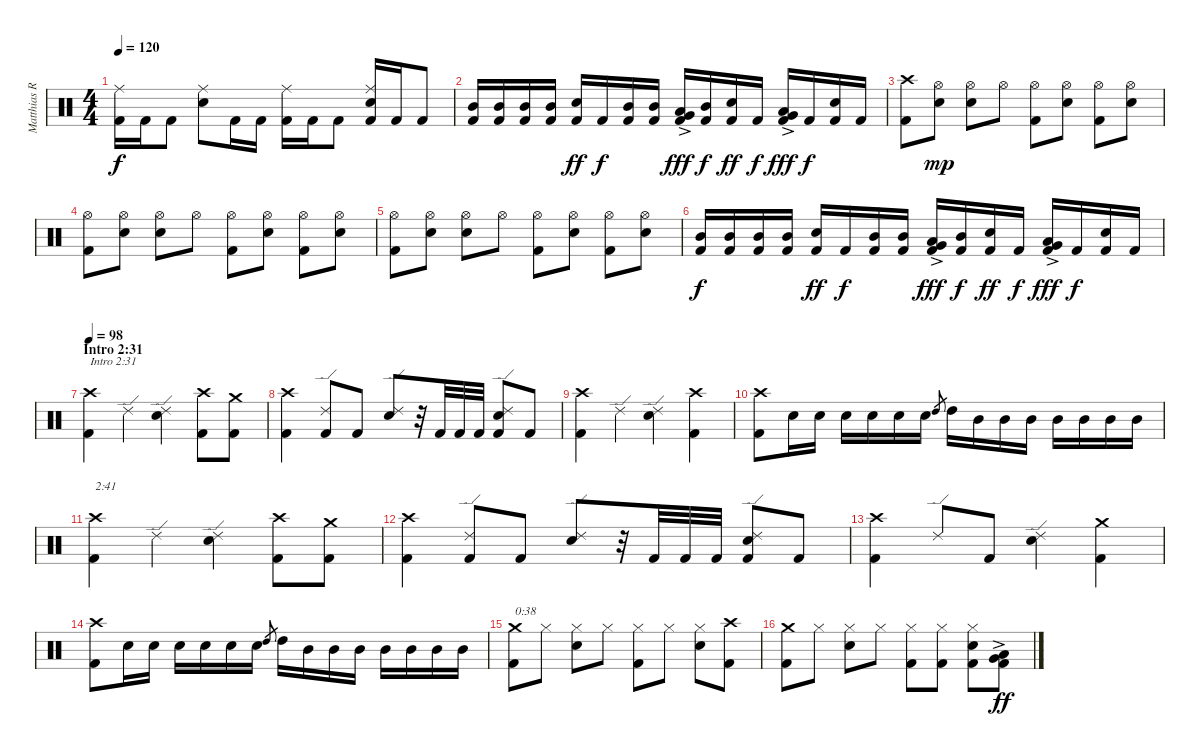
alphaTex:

\track ("Matthias R." "Matthias R") {instrument percussion}
\staff {score}
\articulation defaults
\ts (4 4)
\tempo 120
\clef neutral
\ks c
("Kick (hit) 2" "Ride (middle)").16{dy f} "Kick (hit) 2".16 "Kick (hit) 2".8 ("Electric Snare (hit)" "Ride (middle)").8 "Kick (hit) 2".16 "Kick (hit) 2".16 ("Kick (hit) 2" "Ride (middle)").16 "Kick (hit) 2".16 "Kick (hit) 2".8 ("Kick (hit) 2" "Electric Snare (hit)" "Ride (middle)").16 "Kick (hit) 2".16 "Kick (hit) 2".8 |
("Kick (hit) 2" "Mid Tom (hit)").16 ("Kick (hit) 2" "Mid Tom (hit)").16 ("Kick (hit) 2" "Mid Tom (hit)").16 ("Kick (hit) 2" "Mid Tom (hit)").16 ("Kick (hit) 2" "Electric Snare (hit)").16{dy ff} "Kick (hit) 2".16{dy f} ("Kick (hit) 2" "Mid Tom (hit)").16 ("Kick (hit) 2" "Mid Tom (hit)").16 ("Kick (hit) 2" "Very Low Tom (hit)"{ac} "Low Tom (hit)"{ac}).16{dy fff} ("Kick (hit) 2" "Mid Tom (hit)").16{dy f} ("Kick (hit) 2" "Electric Snare (hit)").16{dy ff} "Kick (hit) 2".16{dy f} ("Kick (hit) 2" "Very Low Tom (hit)"{ac} "Low Tom (hit)"{ac}).16{dy fff} "Kick (hit) 2".16{dy f} ("Kick (hit) 2" "Electric Snare (hit)").16 "Kick (hit) 2".16 |
("Kick (hit) 2" "Crash high (hit)").8 ("Electric Snare (hit)" "Hi-Hat (open)").8{dy mp} ("Electric Snare (hit)" "Hi-Hat (open)").8 "Hi-Hat (open)".8 ("Kick (hit) 2" "Hi-Hat (open)").8 ("Electric Snare (hit)" "Hi-Hat (open)").8 ("Kick (hit) 2" "Hi-Hat (open)").8 ("Electric Snare (hit)" "Hi-Hat (open)").8 |
("Kick (hit) 2" "Hi-Hat (open)").8 ("Electric Snare (hit)" "Hi-Hat (open)").8 ("Electric Snare (hit)" "Hi-Hat (open)").8 "Hi-Hat (open)".8 ("Kick (hit) 2" "Hi-Hat (open)").8 ("Electric Snare (hit)" "Hi-Hat (open)").8 ("Kick (hit) 2" "Hi-Hat (open)").8 ("Electric Snare (hit)" "Hi-Hat (open)").8 |
("Kick (hit) 2" "Hi-Hat (open)").8 ("Electric Snare (hit)" "Hi-Hat (open)").8 ("Electric Snare (hit)" "Hi-Hat (open)").8 "Hi-Hat (open)".8 ("Kick (hit) 2" "Hi-Hat (open)").8 ("Electric Snare (hit)" "Hi-Hat (open)").8 ("Kick (hit) 2" "Hi-Hat (open)").8 ("Electric Snare (hit)" "Hi-Hat (open)").8 |
("Kick (hit) 2" "Mid Tom (hit)").16{dy f} ("Kick (hit) 2" "Mid Tom (hit)").16 ("Kick (hit) 2" "Mid Tom (hit)").16 ("Kick (hit) 2" "Mid Tom (hit)").16 ("Kick (hit) 2" "Electric Snare (hit)").16{dy ff} "Kick (hit) 2".16{dy f} ("Kick (hit) 2" "Mid Tom (hit)").16 ("Kick (hit) 2" "Mid Tom (hit)").16 ("Kick (hit) 2" "Very Low Tom (hit)"{ac} "Low Tom (hit)"{ac}).16{dy fff} ("Kick (hit) 2" "Mid Tom (hit)").16{dy f} ("Kick (hit) 2" "Electric Snare (hit)").16{dy ff} "Kick (hit) 2".16{dy f} ("Kick (hit) 2" "Very Low Tom (hit)"{ac} "Low Tom (hit)"{ac}).16{dy fff} "Kick (hit) 2".16{dy f} ("Kick (hit) 2" "Electric Snare (hit)").16 "Kick (hit) 2".16 |
\section ("" "Intro 2:31")
\tempo 98
("Kick (hit) 2" "Crash high (hit)").4{txt "Intro 2:31"} "Ride (edge) 2".4 ("Electric Snare (hit)" "Ride (edge) 2").4 ("Kick (hit) 2" "Crash high (hit)").8 ("Kick (hit) 2" "Crash medium (hit)").8 |
("Kick (hit) 2" "Crash high (hit)").4 ("Kick (hit) 2" "Ride (edge) 2").8 "Kick (hit) 2".8 ("Electric Snare (hit)" "Ride (edge) 2").8 r.32 "Kick (hit) 2".32 "Kick (hit) 2".32 "Kick (hit) 2".32 ("Kick (hit) 2" "Electric Snare (hit)" "Ride (edge) 2").8 "Kick (hit) 2".8 |
("Kick (hit) 2" "Crash high (hit)").4 "Ride (edge) 2".4 ("Electric Snare (hit)" "Ride (edge) 2").4 ("Kick (hit) 2" "Crash high (hit)").4 |
("Kick (hit) 2" "Crash high (hit)").8 "Electric Snare (hit)".16 "Electric Snare (hit)".16 "Electric Snare (hit)".16 "Electric Snare (hit)".16 "Electric Snare (hit)".16 "Electric Snare (hit)".16 "High Tom (hit)".8{gr} "High Tom (hit)".16 "Mid Tom (hit)".16 "Mid Tom (hit)".16 "Mid Tom (hit)".16 "Mid Tom (hit)".16 "Mid Tom (hit)".16 "Mid Tom (hit)".16 "Mid Tom (hit)".16 |
("Kick (hit) 2" "Crash high (hit)").4{txt "2:41"} "Ride (edge) 2".4 ("Electric Snare (hit)" "Ride (edge) 2").4 ("Kick (hit) 2" "Crash high (hit)").8 ("Kick (hit) 2" "Crash medium (hit)").8 |
("Kick (hit) 2" "Crash high (hit)").4 ("Kick (hit) 2" "Ride (edge) 2").8 "Kick (hit) 2".8 ("Electric Snare (hit)" "Ride (edge) 2").8 r.32 "Kick (hit) 2".32 "Kick (hit) 2".32 "Kick (hit) 2".32 ("Kick (hit) 2" "Electric Snare (hit)" "Ride (edge) 2").8 "Kick (hit) 2".8 |
("Kick (hit) 2" "Crash high (hit)").4 "Ride (edge) 2".8 "Kick (hit) 2".8 ("Electric Snare (hit)" "Ride (edge) 2").4 ("Kick (hit) 2" "Crash medium (hit)").4 |
("Kick (hit) 2" "Crash high (hit)").8 "Electric Snare (hit)".16 "Electric Snare (hit)".16 "Electric Snare (hit)".16 "Electric Snare (hit)".16 "Electric Snare (hit)".16 "Electric Snare (hit)".16 "High Tom (hit)".8{gr} "High Tom (hit)".16 "Mid Tom (hit)".16 "Mid Tom (hit)".16 "Mid Tom (hit)".16 "Mid Tom (hit)".16 "Mid Tom (hit)".16 "Mid Tom (hit)".16 "Mid Tom (hit)".16 |
("Kick (hit) 2" "Crash medium (hit)").8{txt "0:38"} "Hi-Hat (closed)".8 ("Electric Snare (hit)" "Hi-Hat (closed)").8 "Hi-Hat (closed)".8 ("Kick (hit) 2" "Hi-Hat (closed)").8 "Hi-Hat (closed)".8 ("Electric Snare (hit)" "Hi-Hat (closed)").8 ("Kick (hit) 2" "Crash high (hit)").8 |
("Kick (hit) 2" "Crash medium (hit)").8 "Hi-Hat (closed)".8 ("Electric Snare (hit)" "Hi-Hat (closed)").8 "Hi-Hat (closed)".8 ("Kick (hit) 2" "Hi-Hat (closed)").8 ("Kick (hit) 2" "Hi-Hat (closed)").8 ("Kick (hit) 2" "Electric Snare (hit)" "Hi-Hat (closed)").8 ("Kick (hit) 2" "Very Low Tom (hit)"{ac} "Low Tom (hit)"{ac}).8{dy ff}
